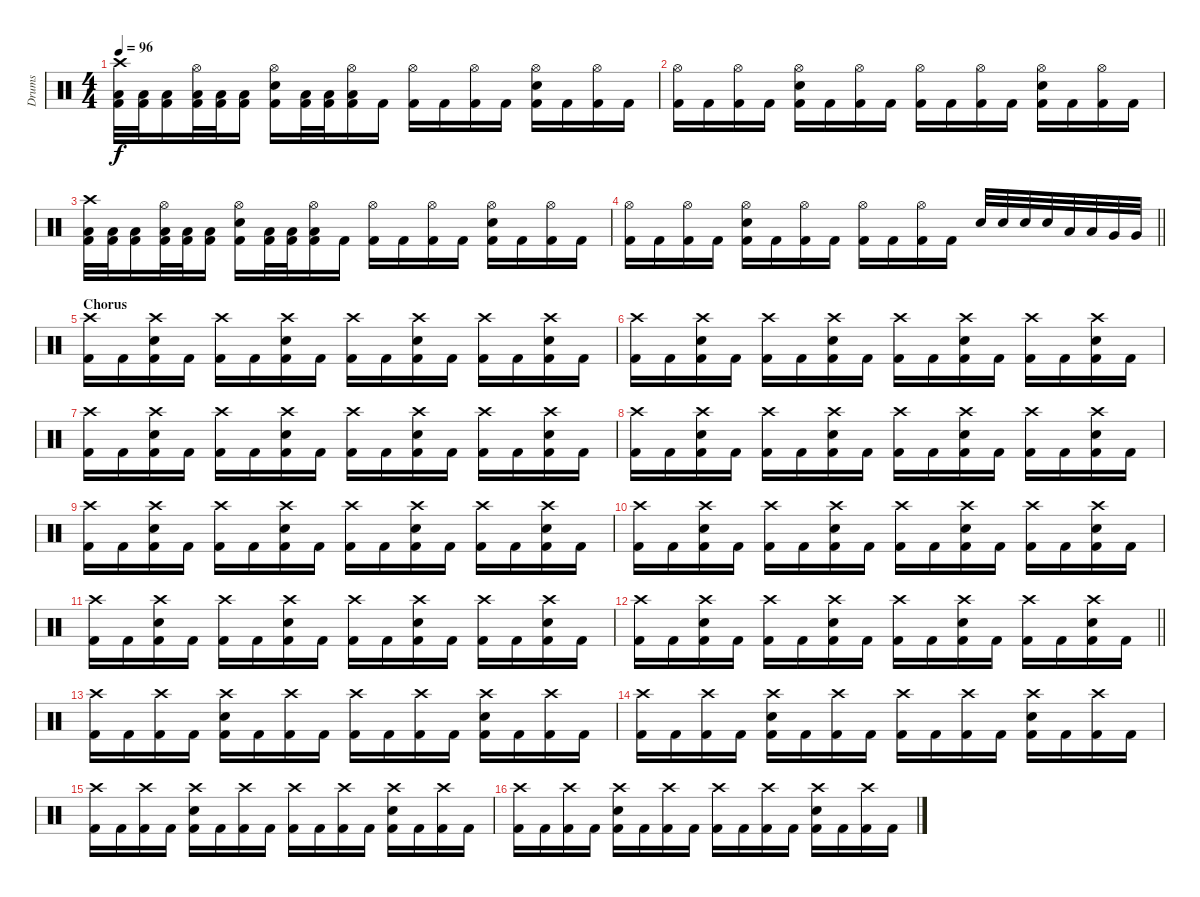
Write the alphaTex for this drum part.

\track ("Drums" "Drums") {instrument percussion}
\staff {score}
\articulation defaults
\ts (4 4)
\tempo 96
\clef neutral
\ks c
("Crash high (hit)" "Low Tom (hit)" "Kick (hit) 2").32{dy f} ("Low Tom (hit)" "Kick (hit) 2").32 ("Low Tom (hit)" "Kick (hit) 2").16 ("Hi-Hat (open)" "Low Tom (hit)" "Kick (hit) 2").32 ("Low Tom (hit)" "Kick (hit) 2").32 ("Low Tom (hit)" "Kick (hit) 2").16 ("Hi-Hat (open)" "Snare (hit) 2" "Kick (hit) 2").16 ("Low Tom (hit)" "Kick (hit) 2").32 ("Low Tom (hit)" "Kick (hit) 2").32 ("Hi-Hat (open)" "Low Tom (hit)" "Kick (hit) 2").16 "Kick (hit) 2".16 ("Hi-Hat (open)" "Kick (hit) 2").16 "Kick (hit) 2".16 ("Hi-Hat (open)" "Kick (hit) 2").16 "Kick (hit) 2".16 ("Hi-Hat (open)" "Snare (hit) 2" "Kick (hit) 2").16 "Kick (hit) 2".16 ("Hi-Hat (open)" "Kick (hit) 2").16 "Kick (hit) 2".16 |
("Hi-Hat (open)" "Kick (hit) 2").16 "Kick (hit) 2".16 ("Hi-Hat (open)" "Kick (hit) 2").16 "Kick (hit) 2".16 ("Hi-Hat (open)" "Snare (hit) 2" "Kick (hit) 2").16 "Kick (hit) 2".16 ("Hi-Hat (open)" "Kick (hit) 2").16 "Kick (hit) 2".16 ("Hi-Hat (open)" "Kick (hit) 2").16 "Kick (hit) 2".16 ("Hi-Hat (open)" "Kick (hit) 2").16 "Kick (hit) 2".16 ("Hi-Hat (open)" "Snare (hit) 2" "Kick (hit) 2").16 "Kick (hit) 2".16 ("Hi-Hat (open)" "Kick (hit) 2").16 "Kick (hit) 2".16 |
("Crash high (hit)" "Low Tom (hit)" "Kick (hit) 2").32 ("Low Tom (hit)" "Kick (hit) 2").32 ("Low Tom (hit)" "Kick (hit) 2").16 ("Hi-Hat (open)" "Low Tom (hit)" "Kick (hit) 2").32 ("Low Tom (hit)" "Kick (hit) 2").32 ("Low Tom (hit)" "Kick (hit) 2").16 ("Hi-Hat (open)" "Snare (hit) 2" "Kick (hit) 2").16 ("Low Tom (hit)" "Kick (hit) 2").32 ("Low Tom (hit)" "Kick (hit) 2").32 ("Hi-Hat (open)" "Low Tom (hit)" "Kick (hit) 2").16 "Kick (hit) 2".16 ("Hi-Hat (open)" "Kick (hit) 2").16 "Kick (hit) 2".16 ("Hi-Hat (open)" "Kick (hit) 2").16 "Kick (hit) 2".16 ("Hi-Hat (open)" "Snare (hit) 2" "Kick (hit) 2").16 "Kick (hit) 2".16 ("Hi-Hat (open)" "Kick (hit) 2").16 "Kick (hit) 2".16 |
\barLineRight lightlight
("Hi-Hat (open)" "Kick (hit) 2").16 "Kick (hit) 2".16 ("Hi-Hat (open)" "Kick (hit) 2").16 "Kick (hit) 2".16 ("Hi-Hat (open)" "Snare (hit) 2" "Kick (hit) 2").16 "Kick (hit) 2".16 ("Hi-Hat (open)" "Kick (hit) 2").16 "Kick (hit) 2".16 ("Hi-Hat (open)" "Kick (hit) 2").16 "Kick (hit) 2".16 ("Hi-Hat (open)" "Kick (hit) 2").16 "Kick (hit) 2".16 "Snare (hit) 2".32 "Snare (hit) 2".32 "Snare (hit) 2".32 "Snare (hit) 2".32 "Low Tom (hit)".32 "Low Tom (hit)".32 "Very Low Tom (hit)".32 "Very Low Tom (hit)".32 |
\section ("" "Chorus")
("Crash high (hit)" "Kick (hit) 2").16 "Kick (hit) 2".16 ("Crash high (hit)" "Snare (hit) 2" "Kick (hit) 2").16 "Kick (hit) 2".16 ("Crash high (hit)" "Kick (hit) 2").16 "Kick (hit) 2".16 ("Crash high (hit)" "Snare (hit) 2" "Kick (hit) 2").16 "Kick (hit) 2".16 ("Crash high (hit)" "Kick (hit) 2").16 "Kick (hit) 2".16 ("Crash high (hit)" "Snare (hit) 2" "Kick (hit) 2").16 "Kick (hit) 2".16 ("Crash high (hit)" "Kick (hit) 2").16 "Kick (hit) 2".16 ("Crash high (hit)" "Snare (hit) 2" "Kick (hit) 2").16 "Kick (hit) 2".16 |
("Crash high (hit)" "Kick (hit) 2").16 "Kick (hit) 2".16 ("Crash high (hit)" "Snare (hit) 2" "Kick (hit) 2").16 "Kick (hit) 2".16 ("Crash high (hit)" "Kick (hit) 2").16 "Kick (hit) 2".16 ("Crash high (hit)" "Snare (hit) 2" "Kick (hit) 2").16 "Kick (hit) 2".16 ("Crash high (hit)" "Kick (hit) 2").16 "Kick (hit) 2".16 ("Crash high (hit)" "Snare (hit) 2" "Kick (hit) 2").16 "Kick (hit) 2".16 ("Crash high (hit)" "Kick (hit) 2").16 "Kick (hit) 2".16 ("Crash high (hit)" "Snare (hit) 2" "Kick (hit) 2").16 "Kick (hit) 2".16 |
("Crash high (hit)" "Kick (hit) 2").16 "Kick (hit) 2".16 ("Crash high (hit)" "Snare (hit) 2" "Kick (hit) 2").16 "Kick (hit) 2".16 ("Crash high (hit)" "Kick (hit) 2").16 "Kick (hit) 2".16 ("Crash high (hit)" "Snare (hit) 2" "Kick (hit) 2").16 "Kick (hit) 2".16 ("Crash high (hit)" "Kick (hit) 2").16 "Kick (hit) 2".16 ("Crash high (hit)" "Snare (hit) 2" "Kick (hit) 2").16 "Kick (hit) 2".16 ("Crash high (hit)" "Kick (hit) 2").16 "Kick (hit) 2".16 ("Crash high (hit)" "Snare (hit) 2" "Kick (hit) 2").16 "Kick (hit) 2".16 |
("Crash high (hit)" "Kick (hit) 2").16 "Kick (hit) 2".16 ("Crash high (hit)" "Snare (hit) 2" "Kick (hit) 2").16 "Kick (hit) 2".16 ("Crash high (hit)" "Kick (hit) 2").16 "Kick (hit) 2".16 ("Crash high (hit)" "Snare (hit) 2" "Kick (hit) 2").16 "Kick (hit) 2".16 ("Crash high (hit)" "Kick (hit) 2").16 "Kick (hit) 2".16 ("Crash high (hit)" "Snare (hit) 2" "Kick (hit) 2").16 "Kick (hit) 2".16 ("Crash high (hit)" "Kick (hit) 2").16 "Kick (hit) 2".16 ("Crash high (hit)" "Snare (hit) 2" "Kick (hit) 2").16 "Kick (hit) 2".16 |
("Crash high (hit)" "Kick (hit) 2").16 "Kick (hit) 2".16 ("Crash high (hit)" "Snare (hit) 2" "Kick (hit) 2").16 "Kick (hit) 2".16 ("Crash high (hit)" "Kick (hit) 2").16 "Kick (hit) 2".16 ("Crash high (hit)" "Snare (hit) 2" "Kick (hit) 2").16 "Kick (hit) 2".16 ("Crash high (hit)" "Kick (hit) 2").16 "Kick (hit) 2".16 ("Crash high (hit)" "Snare (hit) 2" "Kick (hit) 2").16 "Kick (hit) 2".16 ("Crash high (hit)" "Kick (hit) 2").16 "Kick (hit) 2".16 ("Crash high (hit)" "Snare (hit) 2" "Kick (hit) 2").16 "Kick (hit) 2".16 |
("Crash high (hit)" "Kick (hit) 2").16 "Kick (hit) 2".16 ("Crash high (hit)" "Snare (hit) 2" "Kick (hit) 2").16 "Kick (hit) 2".16 ("Crash high (hit)" "Kick (hit) 2").16 "Kick (hit) 2".16 ("Crash high (hit)" "Snare (hit) 2" "Kick (hit) 2").16 "Kick (hit) 2".16 ("Crash high (hit)" "Kick (hit) 2").16 "Kick (hit) 2".16 ("Crash high (hit)" "Snare (hit) 2" "Kick (hit) 2").16 "Kick (hit) 2".16 ("Crash high (hit)" "Kick (hit) 2").16 "Kick (hit) 2".16 ("Crash high (hit)" "Snare (hit) 2" "Kick (hit) 2").16 "Kick (hit) 2".16 |
("Crash high (hit)" "Kick (hit) 2").16 "Kick (hit) 2".16 ("Crash high (hit)" "Snare (hit) 2" "Kick (hit) 2").16 "Kick (hit) 2".16 ("Crash high (hit)" "Kick (hit) 2").16 "Kick (hit) 2".16 ("Crash high (hit)" "Snare (hit) 2" "Kick (hit) 2").16 "Kick (hit) 2".16 ("Crash high (hit)" "Kick (hit) 2").16 "Kick (hit) 2".16 ("Crash high (hit)" "Snare (hit) 2" "Kick (hit) 2").16 "Kick (hit) 2".16 ("Crash high (hit)" "Kick (hit) 2").16 "Kick (hit) 2".16 ("Crash high (hit)" "Snare (hit) 2" "Kick (hit) 2").16 "Kick (hit) 2".16 |
\barLineRight lightlight
("Crash high (hit)" "Kick (hit) 2").16 "Kick (hit) 2".16 ("Crash high (hit)" "Snare (hit) 2" "Kick (hit) 2").16 "Kick (hit) 2".16 ("Crash high (hit)" "Kick (hit) 2").16 "Kick (hit) 2".16 ("Crash high (hit)" "Snare (hit) 2" "Kick (hit) 2").16 "Kick (hit) 2".16 ("Crash high (hit)" "Kick (hit) 2").16 "Kick (hit) 2".16 ("Crash high (hit)" "Snare (hit) 2" "Kick (hit) 2").16 "Kick (hit) 2".16 ("Crash high (hit)" "Kick (hit) 2").16 "Kick (hit) 2".16 ("Crash high (hit)" "Snare (hit) 2" "Kick (hit) 2").16 "Kick (hit) 2".16 |
("Crash high (hit)" "Kick (hit) 2").16 "Kick (hit) 2".16 ("Crash high (hit)" "Kick (hit) 2").16 "Kick (hit) 2".16 ("Crash high (hit)" "Snare (hit) 2" "Kick (hit) 2").16 "Kick (hit) 2".16 ("Crash high (hit)" "Kick (hit) 2").16 "Kick (hit) 2".16 ("Crash high (hit)" "Kick (hit) 2").16 "Kick (hit) 2".16 ("Crash high (hit)" "Kick (hit) 2").16 "Kick (hit) 2".16 ("Crash high (hit)" "Snare (hit) 2" "Kick (hit) 2").16 "Kick (hit) 2".16 ("Crash high (hit)" "Kick (hit) 2").16 "Kick (hit) 2".16 |
("Crash high (hit)" "Kick (hit) 2").16 "Kick (hit) 2".16 ("Crash high (hit)" "Kick (hit) 2").16 "Kick (hit) 2".16 ("Crash high (hit)" "Snare (hit) 2" "Kick (hit) 2").16 "Kick (hit) 2".16 ("Crash high (hit)" "Kick (hit) 2").16 "Kick (hit) 2".16 ("Crash high (hit)" "Kick (hit) 2").16 "Kick (hit) 2".16 ("Crash high (hit)" "Kick (hit) 2").16 "Kick (hit) 2".16 ("Crash high (hit)" "Snare (hit) 2" "Kick (hit) 2").16 "Kick (hit) 2".16 ("Crash high (hit)" "Kick (hit) 2").16 "Kick (hit) 2".16 |
("Crash high (hit)" "Kick (hit) 2").16 "Kick (hit) 2".16 ("Crash high (hit)" "Kick (hit) 2").16 "Kick (hit) 2".16 ("Crash high (hit)" "Snare (hit) 2" "Kick (hit) 2").16 "Kick (hit) 2".16 ("Crash high (hit)" "Kick (hit) 2").16 "Kick (hit) 2".16 ("Crash high (hit)" "Kick (hit) 2").16 "Kick (hit) 2".16 ("Crash high (hit)" "Kick (hit) 2").16 "Kick (hit) 2".16 ("Crash high (hit)" "Snare (hit) 2" "Kick (hit) 2").16 "Kick (hit) 2".16 ("Crash high (hit)" "Kick (hit) 2").16 "Kick (hit) 2".16 |
("Crash high (hit)" "Kick (hit) 2").16 "Kick (hit) 2".16 ("Crash high (hit)" "Kick (hit) 2").16 "Kick (hit) 2".16 ("Crash high (hit)" "Snare (hit) 2" "Kick (hit) 2").16 "Kick (hit) 2".16 ("Crash high (hit)" "Kick (hit) 2").16 "Kick (hit) 2".16 ("Crash high (hit)" "Kick (hit) 2").16 "Kick (hit) 2".16 ("Crash high (hit)" "Kick (hit) 2").16 "Kick (hit) 2".16 ("Crash high (hit)" "Snare (hit) 2" "Kick (hit) 2").16 "Kick (hit) 2".16 ("Crash high (hit)" "Kick (hit) 2").16 "Kick (hit) 2".16
